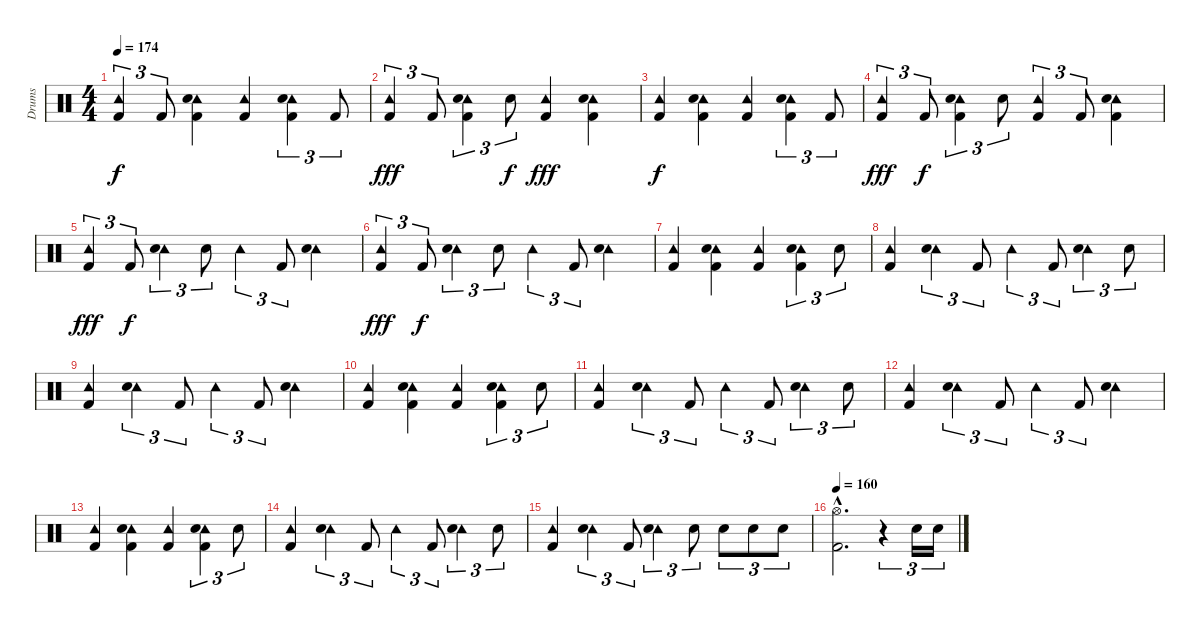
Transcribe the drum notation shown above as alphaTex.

\track ("Drums" "Drums") {instrument percussion}
\staff {score}
\articulation defaults
\ts (4 4)
\tempo 174
\clef neutral
\ks c
("Tambourine (hit)" "Kick (hit) 2").4{tu (3 2) dy f} "Kick (hit) 2".8{tu (3 2)} ("Tambourine (hit)" "Electric Snare (hit)" "Kick (hit) 2").4 ("Tambourine (hit)" "Kick (hit) 2").4 ("Tambourine (hit)" "Electric Snare (hit)" "Kick (hit) 2").4{tu (3 2)} "Kick (hit) 2".8{tu (3 2)} |
("Tambourine (hit)" "Kick (hit) 2").4{tu (3 2) dy fff} "Kick (hit) 2".8{tu (3 2)} ("Tambourine (hit)" "Electric Snare (hit)" "Kick (hit) 2").4{tu (3 2)} "Electric Snare (hit)".8{tu (3 2) dy f} ("Tambourine (hit)" "Kick (hit) 2").4{dy fff} ("Tambourine (hit)" "Electric Snare (hit)" "Kick (hit) 2").4 |
("Tambourine (hit)" "Kick (hit) 2").4{dy f} ("Tambourine (hit)" "Electric Snare (hit)" "Kick (hit) 2").4 ("Tambourine (hit)" "Kick (hit) 2").4 ("Tambourine (hit)" "Electric Snare (hit)" "Kick (hit) 2").4{tu (3 2)} "Kick (hit) 2".8{tu (3 2)} |
("Tambourine (hit)" "Kick (hit) 2").4{tu (3 2) dy fff} "Kick (hit) 2".8{tu (3 2) dy f} ("Tambourine (hit)" "Electric Snare (hit)" "Kick (hit) 2").4{tu (3 2)} "Electric Snare (hit)".8{tu (3 2)} ("Tambourine (hit)" "Kick (hit) 2").4{tu (3 2)} "Kick (hit) 2".8{tu (3 2)} ("Tambourine (hit)" "Electric Snare (hit)" "Kick (hit) 2").4 |
("Tambourine (hit)" "Kick (hit) 2").4{tu (3 2) dy fff} "Kick (hit) 2".8{tu (3 2) dy f} ("Tambourine (hit)" "Electric Snare (hit)").4{tu (3 2)} "Electric Snare (hit)".8{tu (3 2)} "Tambourine (hit)".4{tu (3 2)} "Kick (hit) 2".8{tu (3 2)} ("Tambourine (hit)" "Electric Snare (hit)").4 |
("Tambourine (hit)" "Kick (hit) 2").4{tu (3 2) dy fff} "Kick (hit) 2".8{tu (3 2) dy f} ("Tambourine (hit)" "Electric Snare (hit)").4{tu (3 2)} "Electric Snare (hit)".8{tu (3 2)} "Tambourine (hit)".4{tu (3 2)} "Kick (hit) 2".8{tu (3 2)} ("Tambourine (hit)" "Electric Snare (hit)").4 |
("Tambourine (hit)" "Kick (hit) 2").4 ("Tambourine (hit)" "Electric Snare (hit)" "Kick (hit) 2").4 ("Tambourine (hit)" "Kick (hit) 2").4 ("Tambourine (hit)" "Electric Snare (hit)" "Kick (hit) 2").4{tu (3 2)} "Electric Snare (hit)".8{tu (3 2)} |
("Tambourine (hit)" "Kick (hit) 2").4 ("Tambourine (hit)" "Electric Snare (hit)").4{tu (3 2)} "Kick (hit) 2".8{tu (3 2)} "Tambourine (hit)".4{tu (3 2)} "Kick (hit) 2".8{tu (3 2)} ("Tambourine (hit)" "Electric Snare (hit)").4{tu (3 2)} "Electric Snare (hit)".8{tu (3 2)} |
("Tambourine (hit)" "Kick (hit) 2").4 ("Tambourine (hit)" "Electric Snare (hit)").4{tu (3 2)} "Kick (hit) 2".8{tu (3 2)} "Tambourine (hit)".4{tu (3 2)} "Kick (hit) 2".8{tu (3 2)} ("Tambourine (hit)" "Electric Snare (hit)").4 |
("Tambourine (hit)" "Kick (hit) 2").4 ("Tambourine (hit)" "Electric Snare (hit)" "Kick (hit) 2").4 ("Tambourine (hit)" "Kick (hit) 2").4 ("Tambourine (hit)" "Electric Snare (hit)" "Kick (hit) 2").4{tu (3 2)} "Electric Snare (hit)".8{tu (3 2)} |
("Tambourine (hit)" "Kick (hit) 2").4 ("Tambourine (hit)" "Electric Snare (hit)").4{tu (3 2)} "Kick (hit) 2".8{tu (3 2)} "Tambourine (hit)".4{tu (3 2)} "Kick (hit) 2".8{tu (3 2)} ("Tambourine (hit)" "Electric Snare (hit)").4{tu (3 2)} "Electric Snare (hit)".8{tu (3 2)} |
("Tambourine (hit)" "Kick (hit) 2").4 ("Tambourine (hit)" "Electric Snare (hit)").4{tu (3 2)} "Kick (hit) 2".8{tu (3 2)} "Tambourine (hit)".4{tu (3 2)} "Kick (hit) 2".8{tu (3 2)} ("Tambourine (hit)" "Electric Snare (hit)").4 |
("Tambourine (hit)" "Kick (hit) 2").4 ("Tambourine (hit)" "Electric Snare (hit)" "Kick (hit) 2").4 ("Tambourine (hit)" "Kick (hit) 2").4 ("Tambourine (hit)" "Electric Snare (hit)" "Kick (hit) 2").4{tu (3 2)} "Electric Snare (hit)".8{tu (3 2)} |
("Tambourine (hit)" "Kick (hit) 2").4 ("Tambourine (hit)" "Electric Snare (hit)").4{tu (3 2)} "Kick (hit) 2".8{tu (3 2)} "Tambourine (hit)".4{tu (3 2)} "Kick (hit) 2".8{tu (3 2)} ("Tambourine (hit)" "Electric Snare (hit)").4{tu (3 2)} "Electric Snare (hit)".8{tu (3 2)} |
("Tambourine (hit)" "Kick (hit) 2").4 ("Tambourine (hit)" "Electric Snare (hit)").4{tu (3 2)} "Kick (hit) 2".8{tu (3 2)} ("Tambourine (hit)" "Electric Snare (hit)").4{tu (3 2)} "Electric Snare (hit)".8{tu (3 2)} "Electric Snare (hit)".8{tu (3 2)} "Electric Snare (hit)".8{tu (3 2)} "Electric Snare (hit)".8{tu (3 2)} |
\tempo 160
("Hi-Hat (open)"{hac} "Kick (hit) 2"{hac}).2{d} r.4{tu (3 2)} "Electric Snare (hit)".16{tu (3 2)} "Electric Snare (hit)".16{tu (3 2)}
